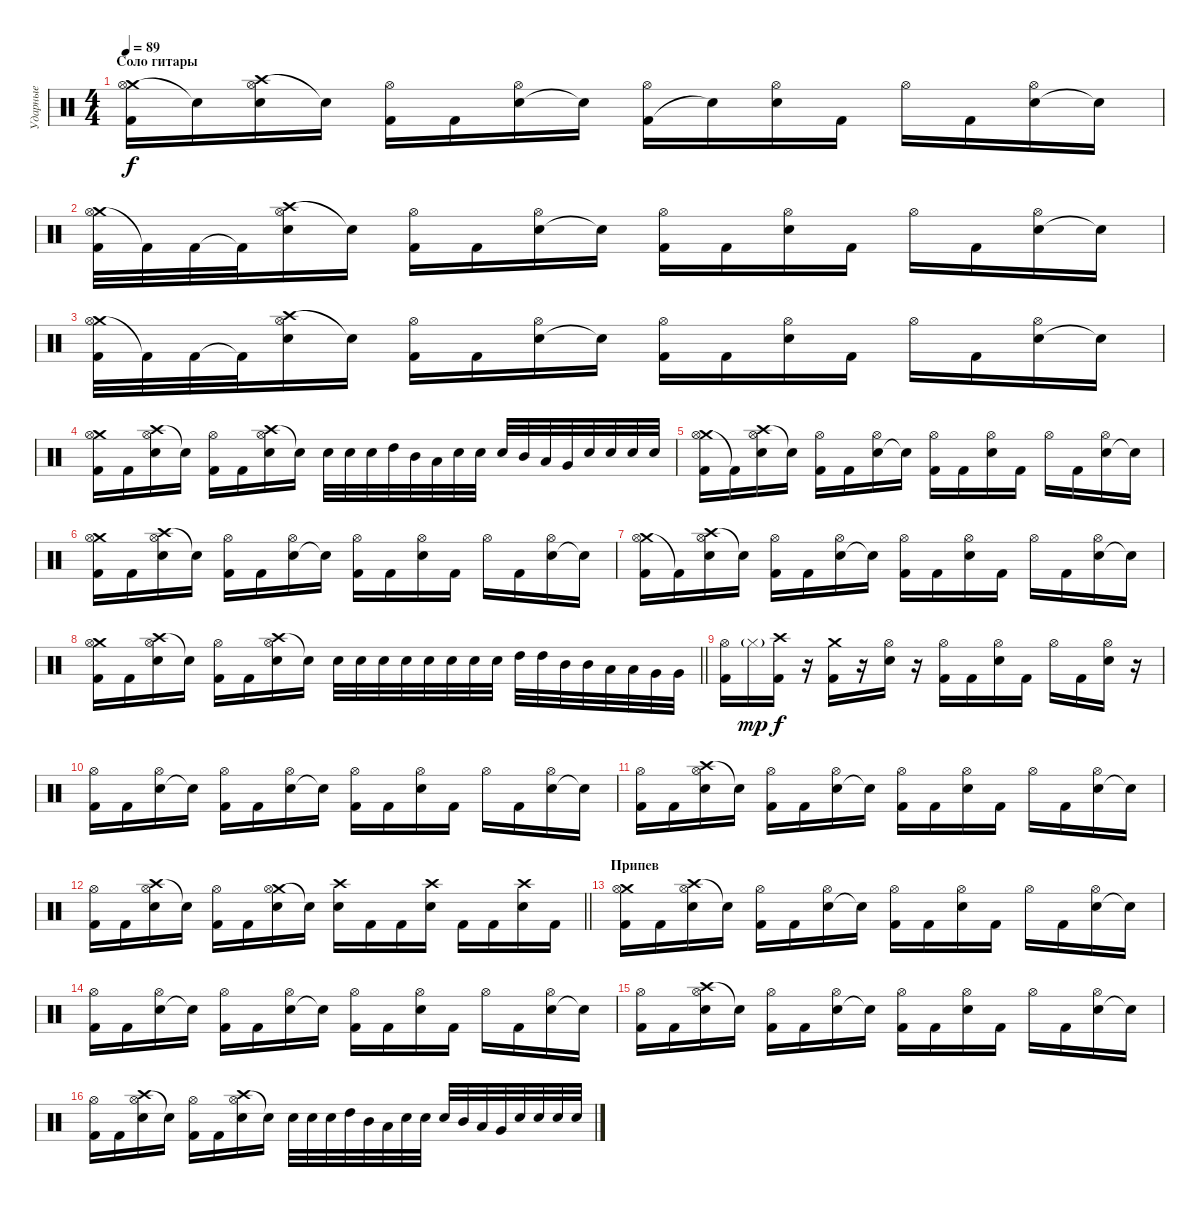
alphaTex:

\track ("Ударные" "Ударные") {instrument percussion}
\staff {score}
\articulation defaults
\ts (4 4)
\section ("" "Соло гитары")
\tempo 89
\clef neutral
\ks c
("Crash medium (hit)" "Kick (hit) 2" "Hi-Hat (open)").16{dy f} "Snare (hit)"{t}.16 ("Crash high (hit)" "Electric Snare (hit)" "Hi-Hat (open)").16 "Snare (hit)"{t}.16 ("Kick (hit) 2" "Hi-Hat (open)").16 "Kick (hit) 2".16 ("Electric Snare (hit)" "Hi-Hat (open)").16 "Snare (hit)"{t}.16 ("Kick (hit) 2" "Hi-Hat (open)").16 "Snare (hit)"{t}.16 ("Electric Snare (hit)" "Hi-Hat (open)").16 "Kick (hit) 2".16 "Hi-Hat (open)".16 "Kick (hit) 2".16 ("Electric Snare (hit)" "Hi-Hat (open)").16 "Snare (hit)"{t}.16 |
("Crash medium (hit)" "Kick (hit) 2" "Hi-Hat (open)").32 "Kick (hit) 2"{t}.32 "Kick (hit) 2".32 "Kick (hit) 2"{t}.32 ("Crash high (hit)" "Electric Snare (hit)" "Hi-Hat (open)").16 "Snare (hit)"{t}.16 ("Kick (hit) 2" "Hi-Hat (open)").16 "Kick (hit) 2".16 ("Electric Snare (hit)" "Hi-Hat (open)").16 "Snare (hit)"{t}.16 ("Kick (hit) 2" "Hi-Hat (open)").16 "Kick (hit) 2".16 ("Electric Snare (hit)" "Hi-Hat (open)").16 "Kick (hit) 2".16 "Hi-Hat (open)".16 "Kick (hit) 2".16 ("Electric Snare (hit)" "Hi-Hat (open)").16 "Electric Snare (hit)"{t}.16 |
("Crash medium (hit)" "Kick (hit) 2" "Hi-Hat (open)").32 "Kick (hit) 2"{t}.32 "Kick (hit) 2".32 "Kick (hit) 2"{t}.32 ("Crash high (hit)" "Electric Snare (hit)" "Hi-Hat (open)").16 "Snare (hit)"{t}.16 ("Kick (hit) 2" "Hi-Hat (open)").16 "Kick (hit) 2".16 ("Electric Snare (hit)" "Hi-Hat (open)").16 "Snare (hit)"{t}.16 ("Kick (hit) 2" "Hi-Hat (open)").16 "Kick (hit) 2".16 ("Electric Snare (hit)" "Hi-Hat (open)").16 "Kick (hit) 2".16 "Hi-Hat (open)".16 "Kick (hit) 2".16 ("Electric Snare (hit)" "Hi-Hat (open)").16 "Electric Snare (hit)"{t}.16 |
("Crash medium (hit)" "Kick (hit) 2" "Hi-Hat (open)").16 "Kick (hit) 2".16 ("Crash high (hit)" "Electric Snare (hit)" "Hi-Hat (open)").16 "Snare (hit)"{t}.16 ("Kick (hit) 2" "Hi-Hat (open)").16 "Kick (hit) 2".16 ("Crash high (hit)" "Electric Snare (hit)" "Hi-Hat (open)").16 "Snare (hit)"{t}.16 "Electric Snare (hit)".32 "Electric Snare (hit)".32 "Electric Snare (hit)".32 "High Tom (hit)".32 "Mid Tom (hit)".32 "Low Tom (hit)".32 "Electric Snare (hit)".32 "Electric Snare (hit)".32 "Electric Snare (hit)".32 "Mid Tom (hit)".32 "Low Tom (hit)".32 "Very Low Tom (hit)".32 "Electric Snare (hit)".32 "Electric Snare (hit)".32 "Electric Snare (hit)".32 "Electric Snare (hit)".32 |
("Crash medium (hit)" "Kick (hit) 2" "Hi-Hat (open)").16 "Kick (hit) 2"{t}.16 ("Crash high (hit)" "Electric Snare (hit)" "Hi-Hat (open)").16 "Snare (hit)"{t}.16 ("Kick (hit) 2" "Hi-Hat (open)").16 "Kick (hit) 2".16 ("Electric Snare (hit)" "Hi-Hat (open)").16 "Snare (hit)"{t}.16 ("Kick (hit) 2" "Hi-Hat (open)").16 "Kick (hit) 2".16 ("Electric Snare (hit)" "Hi-Hat (open)").16 "Kick (hit) 2".16 "Hi-Hat (open)".16 "Kick (hit) 2".16 ("Electric Snare (hit)" "Hi-Hat (open)").16 "Snare (hit)"{t}.16 |
("Crash medium (hit)" "Kick (hit) 2" "Hi-Hat (open)").16 "Kick (hit) 2".16 ("Crash high (hit)" "Electric Snare (hit)" "Hi-Hat (open)").16 "Snare (hit)"{t}.16 ("Kick (hit) 2" "Hi-Hat (open)").16 "Kick (hit) 2".16 ("Electric Snare (hit)" "Hi-Hat (open)").16 "Snare (hit)"{t}.16 ("Kick (hit) 2" "Hi-Hat (open)").16 "Kick (hit) 2".16 ("Electric Snare (hit)" "Hi-Hat (open)").16 "Kick (hit) 2".16 "Hi-Hat (open)".16 "Kick (hit) 2".16 ("Electric Snare (hit)" "Hi-Hat (open)").16 "Snare (hit)"{t}.16 |
("Crash medium (hit)" "Kick (hit) 2" "Hi-Hat (open)").16 "Kick (hit) 2"{t}.16 ("Crash high (hit)" "Electric Snare (hit)" "Hi-Hat (open)").16 "Snare (hit)"{t}.16 ("Kick (hit) 2" "Hi-Hat (open)").16 "Kick (hit) 2".16 ("Electric Snare (hit)" "Hi-Hat (open)").16 "Snare (hit)"{t}.16 ("Kick (hit) 2" "Hi-Hat (open)").16 "Kick (hit) 2".16 ("Electric Snare (hit)" "Hi-Hat (open)").16 "Kick (hit) 2".16 "Hi-Hat (open)".16 "Kick (hit) 2".16 ("Electric Snare (hit)" "Hi-Hat (open)").16 "Snare (hit)"{t}.16 |
\barLineRight lightlight
("Crash medium (hit)" "Kick (hit) 2" "Hi-Hat (open)").16 "Kick (hit) 2".16 ("Crash high (hit)" "Electric Snare (hit)" "Hi-Hat (open)").16 "Snare (hit)"{t}.16 ("Kick (hit) 2" "Hi-Hat (open)").16 "Kick (hit) 2".16 ("Crash high (hit)" "Electric Snare (hit)" "Hi-Hat (open)").16 "Snare (hit)"{t}.16 "Electric Snare (hit)".32 "Electric Snare (hit)".32 "Electric Snare (hit)".32 "Electric Snare (hit)".32 "Electric Snare (hit)".32 "Electric Snare (hit)".32 "Electric Snare (hit)".32 "Electric Snare (hit)".32 "High Tom (hit)".32 "High Tom (hit)".32 "Mid Tom (hit)".32 "Mid Tom (hit)".32 "Low Tom (hit)".32 "Low Tom (hit)".32 "Very Low Tom (hit)".32 "Very Low Tom (hit)".32 |
\section ("" "")
("Hi-Hat (open)" "Kick (hit) 2").16 "Hi-Hat (closed)"{g}.16{dy mp} ("Crash high (hit)" "Kick (hit) 2").16{dy f} r.16 ("Crash medium (hit)" "Kick (hit) 2").16 r.16 ("Electric Snare (hit)" "Hi-Hat (open)").16 r.16 ("Kick (hit) 2" "Hi-Hat (open)").16 "Kick (hit) 2".16 ("Electric Snare (hit)" "Hi-Hat (open)").16 "Kick (hit) 2".16 "Hi-Hat (open)".16 "Kick (hit) 2".16 ("Electric Snare (hit)" "Hi-Hat (open)").16 r.16 |
("Kick (hit) 2" "Hi-Hat (open)").16 "Kick (hit) 2".16 ("Electric Snare (hit)" "Hi-Hat (open)").16 "Snare (hit)"{t}.16 ("Kick (hit) 2" "Hi-Hat (open)").16 "Kick (hit) 2".16 ("Electric Snare (hit)" "Hi-Hat (open)").16 "Snare (hit)"{t}.16 ("Kick (hit) 2" "Hi-Hat (open)").16 "Kick (hit) 2".16 ("Electric Snare (hit)" "Hi-Hat (open)").16 "Kick (hit) 2".16 "Hi-Hat (open)".16 "Kick (hit) 2".16 ("Electric Snare (hit)" "Hi-Hat (open)").16 "Snare (hit)"{t}.16 |
("Kick (hit) 2" "Hi-Hat (open)").16 "Kick (hit) 2".16 ("Crash high (hit)" "Electric Snare (hit)" "Hi-Hat (open)").16 "Snare (hit)"{t}.16 ("Kick (hit) 2" "Hi-Hat (open)").16 "Kick (hit) 2".16 ("Electric Snare (hit)" "Hi-Hat (open)").16 "Snare (hit)"{t}.16 ("Kick (hit) 2" "Hi-Hat (open)").16 "Kick (hit) 2".16 ("Electric Snare (hit)" "Hi-Hat (open)").16 "Kick (hit) 2".16 "Hi-Hat (open)".16 "Kick (hit) 2".16 ("Electric Snare (hit)" "Hi-Hat (open)").16 "Snare (hit)"{t}.16 |
\barLineRight lightlight
("Kick (hit) 2" "Hi-Hat (open)").16 "Kick (hit) 2".16 ("Crash high (hit)" "Electric Snare (hit)" "Hi-Hat (open)").16 "Snare (hit)"{t}.16 ("Kick (hit) 2" "Hi-Hat (open)").16 "Kick (hit) 2".16 ("Crash medium (hit)" "Electric Snare (hit)" "Hi-Hat (open)").16 "Snare (hit)"{t}.16 ("Crash high (hit)" "Electric Snare (hit)").16 "Kick (hit) 2".16 "Kick (hit) 2".16 ("Crash high (hit)" "Electric Snare (hit)").16 "Kick (hit) 2".16 "Kick (hit) 2".16 ("Crash high (hit)" "Electric Snare (hit)").16 "Kick (hit) 2".16 |
\section ("" "Припев")
("Crash medium (hit)" "Kick (hit) 2" "Hi-Hat (open)").16 "Kick (hit) 2".16 ("Crash high (hit)" "Electric Snare (hit)" "Hi-Hat (open)").16 "Snare (hit)"{t}.16 ("Kick (hit) 2" "Hi-Hat (open)").16 "Kick (hit) 2".16 ("Electric Snare (hit)" "Hi-Hat (open)").16 "Snare (hit)"{t}.16 ("Kick (hit) 2" "Hi-Hat (open)").16 "Kick (hit) 2".16 ("Electric Snare (hit)" "Hi-Hat (open)").16 "Kick (hit) 2".16 "Hi-Hat (open)".16 "Kick (hit) 2".16 ("Electric Snare (hit)" "Hi-Hat (open)").16 "Snare (hit)"{t}.16 |
("Kick (hit) 2" "Hi-Hat (open)").16 "Kick (hit) 2".16 ("Electric Snare (hit)" "Hi-Hat (open)").16 "Snare (hit)"{t}.16 ("Kick (hit) 2" "Hi-Hat (open)").16 "Kick (hit) 2".16 ("Electric Snare (hit)" "Hi-Hat (open)").16 "Snare (hit)"{t}.16 ("Kick (hit) 2" "Hi-Hat (open)").16 "Kick (hit) 2".16 ("Electric Snare (hit)" "Hi-Hat (open)").16 "Kick (hit) 2".16 "Hi-Hat (open)".16 "Kick (hit) 2".16 ("Electric Snare (hit)" "Hi-Hat (open)").16 "Snare (hit)"{t}.16 |
("Kick (hit) 2" "Hi-Hat (open)").16 "Kick (hit) 2".16 ("Crash high (hit)" "Electric Snare (hit)" "Hi-Hat (open)").16 "Snare (hit)"{t}.16 ("Kick (hit) 2" "Hi-Hat (open)").16 "Kick (hit) 2".16 ("Electric Snare (hit)" "Hi-Hat (open)").16 "Snare (hit)"{t}.16 ("Kick (hit) 2" "Hi-Hat (open)").16 "Kick (hit) 2".16 ("Electric Snare (hit)" "Hi-Hat (open)").16 "Kick (hit) 2".16 "Hi-Hat (open)".16 "Kick (hit) 2".16 ("Electric Snare (hit)" "Hi-Hat (open)").16 "Snare (hit)"{t}.16 |
("Kick (hit) 2" "Hi-Hat (open)").16 "Kick (hit) 2".16 ("Crash high (hit)" "Electric Snare (hit)" "Hi-Hat (open)").16 "Snare (hit)"{t}.16 ("Kick (hit) 2" "Hi-Hat (open)").16 "Kick (hit) 2".16 ("Crash high (hit)" "Electric Snare (hit)" "Hi-Hat (open)").16 "Snare (hit)"{t}.16 "Electric Snare (hit)".32 "Electric Snare (hit)".32 "Electric Snare (hit)".32 "High Tom (hit)".32 "Mid Tom (hit)".32 "Low Tom (hit)".32 "Electric Snare (hit)".32 "Electric Snare (hit)".32 "Electric Snare (hit)".32 "Mid Tom (hit)".32 "Low Tom (hit)".32 "Very Low Tom (hit)".32 "Electric Snare (hit)".32 "Electric Snare (hit)".32 "Electric Snare (hit)".32 "Electric Snare (hit)".32
